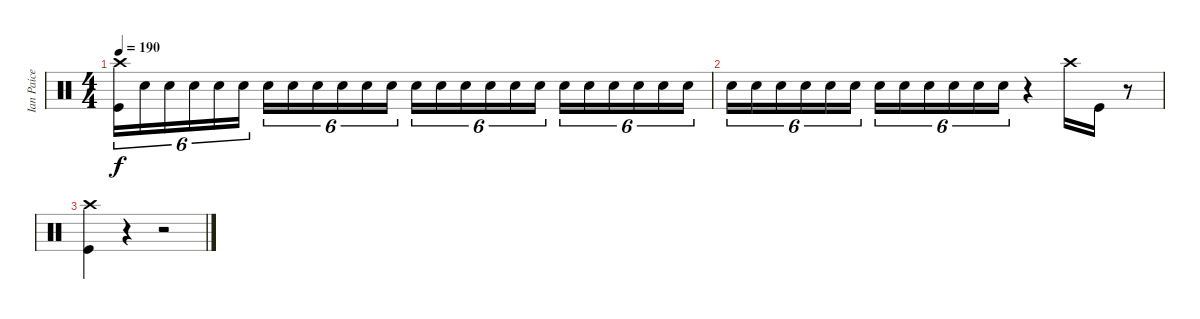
\track ("Ian Paice" "Ian Paice") {instrument percussion}
\staff {score}
\articulation defaults
\ts (4 4)
\tempo 190
\clef neutral
\ks c
("Kick (hit)" "Crash high (hit)").16{tu (6 4) dy f} "Snare (hit) 2".16{tu (6 4)} "Snare (hit) 2".16{tu (6 4)} "Snare (hit) 2".16{tu (6 4)} "Snare (hit) 2".16{tu (6 4)} "Snare (hit) 2".16{tu (6 4)} "Snare (hit) 2".16{tu (6 4)} "Snare (hit) 2".16{tu (6 4)} "Snare (hit) 2".16{tu (6 4)} "Snare (hit) 2".16{tu (6 4)} "Snare (hit) 2".16{tu (6 4)} "Snare (hit) 2".16{tu (6 4)} "Snare (hit) 2".16{tu (6 4)} "Snare (hit) 2".16{tu (6 4)} "Snare (hit) 2".16{tu (6 4)} "Snare (hit) 2".16{tu (6 4)} "Snare (hit) 2".16{tu (6 4)} "Snare (hit) 2".16{tu (6 4)} "Snare (hit) 2".16{tu (6 4)} "Snare (hit) 2".16{tu (6 4)} "Snare (hit) 2".16{tu (6 4)} "Snare (hit) 2".16{tu (6 4)} "Snare (hit) 2".16{tu (6 4)} "Snare (hit) 2".16{tu (6 4)} |
"Snare (hit) 2".16{tu (6 4)} "Snare (hit) 2".16{tu (6 4)} "Snare (hit) 2".16{tu (6 4)} "Snare (hit) 2".16{tu (6 4)} "Snare (hit) 2".16{tu (6 4)} "Snare (hit) 2".16{tu (6 4)} "Snare (hit) 2".16{tu (6 4)} "Snare (hit) 2".16{tu (6 4)} "Snare (hit) 2".16{tu (6 4)} "Snare (hit) 2".16{tu (6 4)} "Snare (hit) 2".16{tu (6 4)} "Snare (hit) 2".16{tu (6 4)} r.4 "Crash high (hit)".16 "Kick (hit)".16 r.8 |
("Crash high (hit)" "Kick (hit)").4 r.4 r.2
